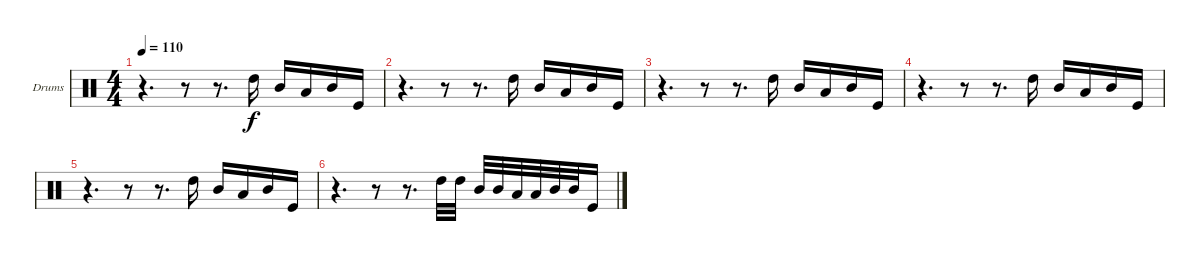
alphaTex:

\bracketExtendMode groupsimilarinstruments
\firstSystemTrackNameOrientation horizontal
\otherSystemsTrackNameOrientation horizontal
\track ("Drumkit" "Drums") {instrument percussion}
\staff {score}
\articulation defaults
\ts (4 4)
\tempo 110
\clef neutral
\ks c
r.4{d dy f} r.8 r.8{d} "High Tom (hit)".16 "Mid Tom (hit)".16 "Low Tom (hit)".16 "Mid Tom (hit)".16 "Kick (hit)".16 |
r.4{d} r.8 r.8{d} "High Tom (hit)".16 "Mid Tom (hit)".16 "Low Tom (hit)".16 "Mid Tom (hit)".16 "Kick (hit)".16 |
r.4{d} r.8 r.8{d} "High Tom (hit)".16 "Mid Tom (hit)".16 "Low Tom (hit)".16 "Mid Tom (hit)".16 "Kick (hit)".16 |
r.4{d} r.8 r.8{d} "High Tom (hit)".16 "Mid Tom (hit)".16 "Low Tom (hit)".16 "Mid Tom (hit)".16 "Kick (hit)".16 |
r.4{d} r.8 r.8{d} "High Tom (hit)".16 "Mid Tom (hit)".16 "Low Tom (hit)".16 "Mid Tom (hit)".16 "Kick (hit)".16 |
r.4{d} r.8 r.8{d} "High Tom (hit)".32 "High Tom (hit)".32 "Mid Tom (hit)".32 "Mid Tom (hit)".32 "Low Tom (hit)".32 "Low Tom (hit)".32 "Mid Tom (hit)".32 "Mid Tom (hit)".32 "Kick (hit)".16
